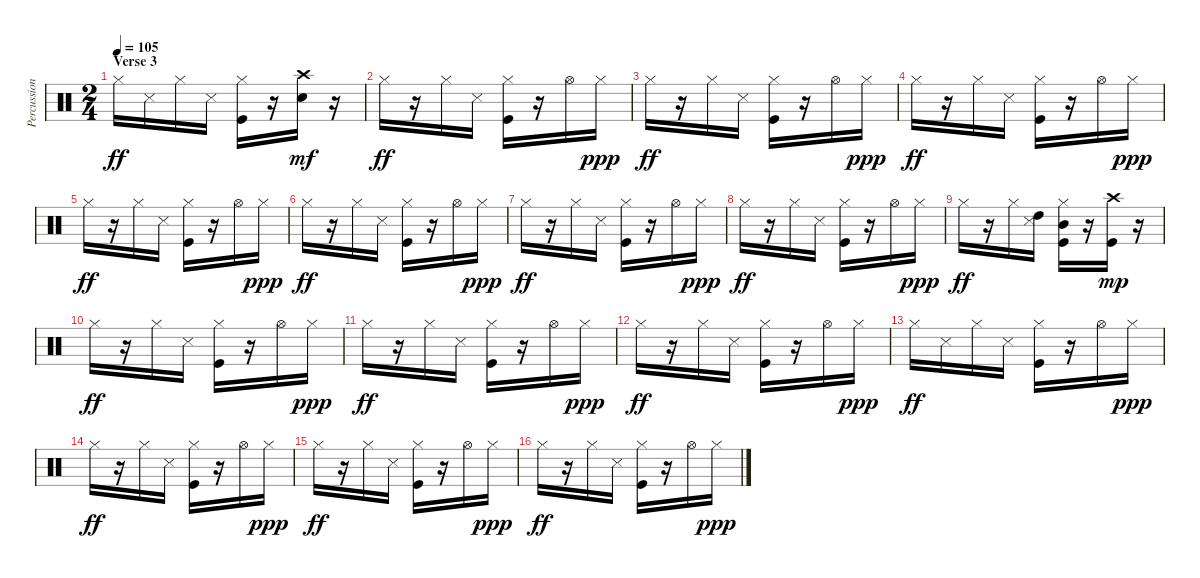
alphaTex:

\track ("Percussion" "Percussion") {instrument percussion}
\staff {score}
\articulation defaults
\ts (2 4)
\section ("" "Verse 3")
\tempo 105
\clef neutral
\ks c "Hi-Hat (closed)".16{dy ff} "Snare (side stick) 3".16 "Hi-Hat (closed)".16 "Snare (side stick) 3".16
("Kick (hit)" "Hi-Hat (closed)").16 r.16 ("Snare (hit) 2" "Crash high (hit)").16{dy mf} r.16 |
"Hi-Hat (closed)".16{dy ff} r.16 "Hi-Hat (closed)".16 "Snare (side stick) 3".16 ("Kick (hit)" "Hi-Hat (closed)").16 r.16 "Hi-Hat (open)".16 "Hi-Hat (closed)".16{dy ppp} |
"Hi-Hat (closed)".16{dy ff} r.16 "Hi-Hat (closed)".16 "Snare (side stick) 3".16 ("Kick (hit)" "Hi-Hat (closed)").16 r.16 "Hi-Hat (open)".16 "Hi-Hat (closed)".16{dy ppp} |
"Hi-Hat (closed)".16{dy ff} r.16 "Hi-Hat (closed)".16 "Snare (side stick) 3".16 ("Kick (hit)" "Hi-Hat (closed)").16 r.16 "Hi-Hat (open)".16 "Hi-Hat (closed)".16{dy ppp} |
"Hi-Hat (closed)".16{dy ff} r.16 "Hi-Hat (closed)".16 "Snare (side stick) 3".16 ("Kick (hit)" "Hi-Hat (closed)").16 r.16 "Hi-Hat (open)".16 "Hi-Hat (closed)".16{dy ppp} |
"Hi-Hat (closed)".16{dy ff} r.16 "Hi-Hat (closed)".16 "Snare (side stick) 3".16 ("Kick (hit)" "Hi-Hat (closed)").16 r.16 "Hi-Hat (open)".16 "Hi-Hat (closed)".16{dy ppp} |
"Hi-Hat (closed)".16{dy ff} r.16 "Hi-Hat (closed)".16 "Snare (side stick) 3".16 ("Kick (hit)" "Hi-Hat (closed)").16 r.16 "Hi-Hat (open)".16 "Hi-Hat (closed)".16{dy ppp} |
"Hi-Hat (closed)".16{dy ff} r.16 "Hi-Hat (closed)".16 "Snare (side stick) 3".16 ("Kick (hit)" "Hi-Hat (closed)").16 r.16 "Hi-Hat (open)".16 "Hi-Hat (closed)".16{dy ppp} |
"Hi-Hat (closed)".16{dy ff} r.16 "Hi-Hat (closed)".16 ("Snare (side stick) 3" "High Tom (hit)").16 ("Kick (hit)" "Hi-Hat (closed)" "Mid Tom (hit)").16 r.16 ("Kick (hit)" "Crash high (hit)").16{dy mp} r.16 |
"Hi-Hat (closed)".16{dy ff} r.16 "Hi-Hat (closed)".16 "Snare (side stick) 3".16 ("Kick (hit)" "Hi-Hat (closed)").16 r.16 "Hi-Hat (open)".16 "Hi-Hat (closed)".16{dy ppp} |
"Hi-Hat (closed)".16{dy ff} r.16 "Hi-Hat (closed)".16 "Snare (side stick) 3".16 ("Kick (hit)" "Hi-Hat (closed)").16 r.16 "Hi-Hat (open)".16 "Hi-Hat (closed)".16{dy ppp} |
"Hi-Hat (closed)".16{dy ff} r.16 "Hi-Hat (closed)".16 "Snare (side stick) 3".16 ("Kick (hit)" "Hi-Hat (closed)").16 r.16 "Hi-Hat (open)".16 "Hi-Hat (closed)".16{dy ppp} |
"Hi-Hat (closed)".16{dy ff} "Snare (side stick) 3".16 "Hi-Hat (closed)".16 "Snare (side stick) 3".16 ("Kick (hit)" "Hi-Hat (closed)").16 r.16 "Hi-Hat (open)".16 "Hi-Hat (closed)".16{dy ppp} |
"Hi-Hat (closed)".16{dy ff} r.16 "Hi-Hat (closed)".16 "Snare (side stick) 3".16 ("Kick (hit)" "Hi-Hat (closed)").16 r.16 "Hi-Hat (open)".16 "Hi-Hat (closed)".16{dy ppp} |
"Hi-Hat (closed)".16{dy ff} r.16 "Hi-Hat (closed)".16 "Snare (side stick) 3".16 ("Kick (hit)" "Hi-Hat (closed)").16 r.16 "Hi-Hat (open)".16 "Hi-Hat (closed)".16{dy ppp} |
"Hi-Hat (closed)".16{dy ff} r.16 "Hi-Hat (closed)".16 "Snare (side stick) 3".16 ("Kick (hit)" "Hi-Hat (closed)").16 r.16 "Hi-Hat (open)".16 "Hi-Hat (closed)".16{dy ppp}
